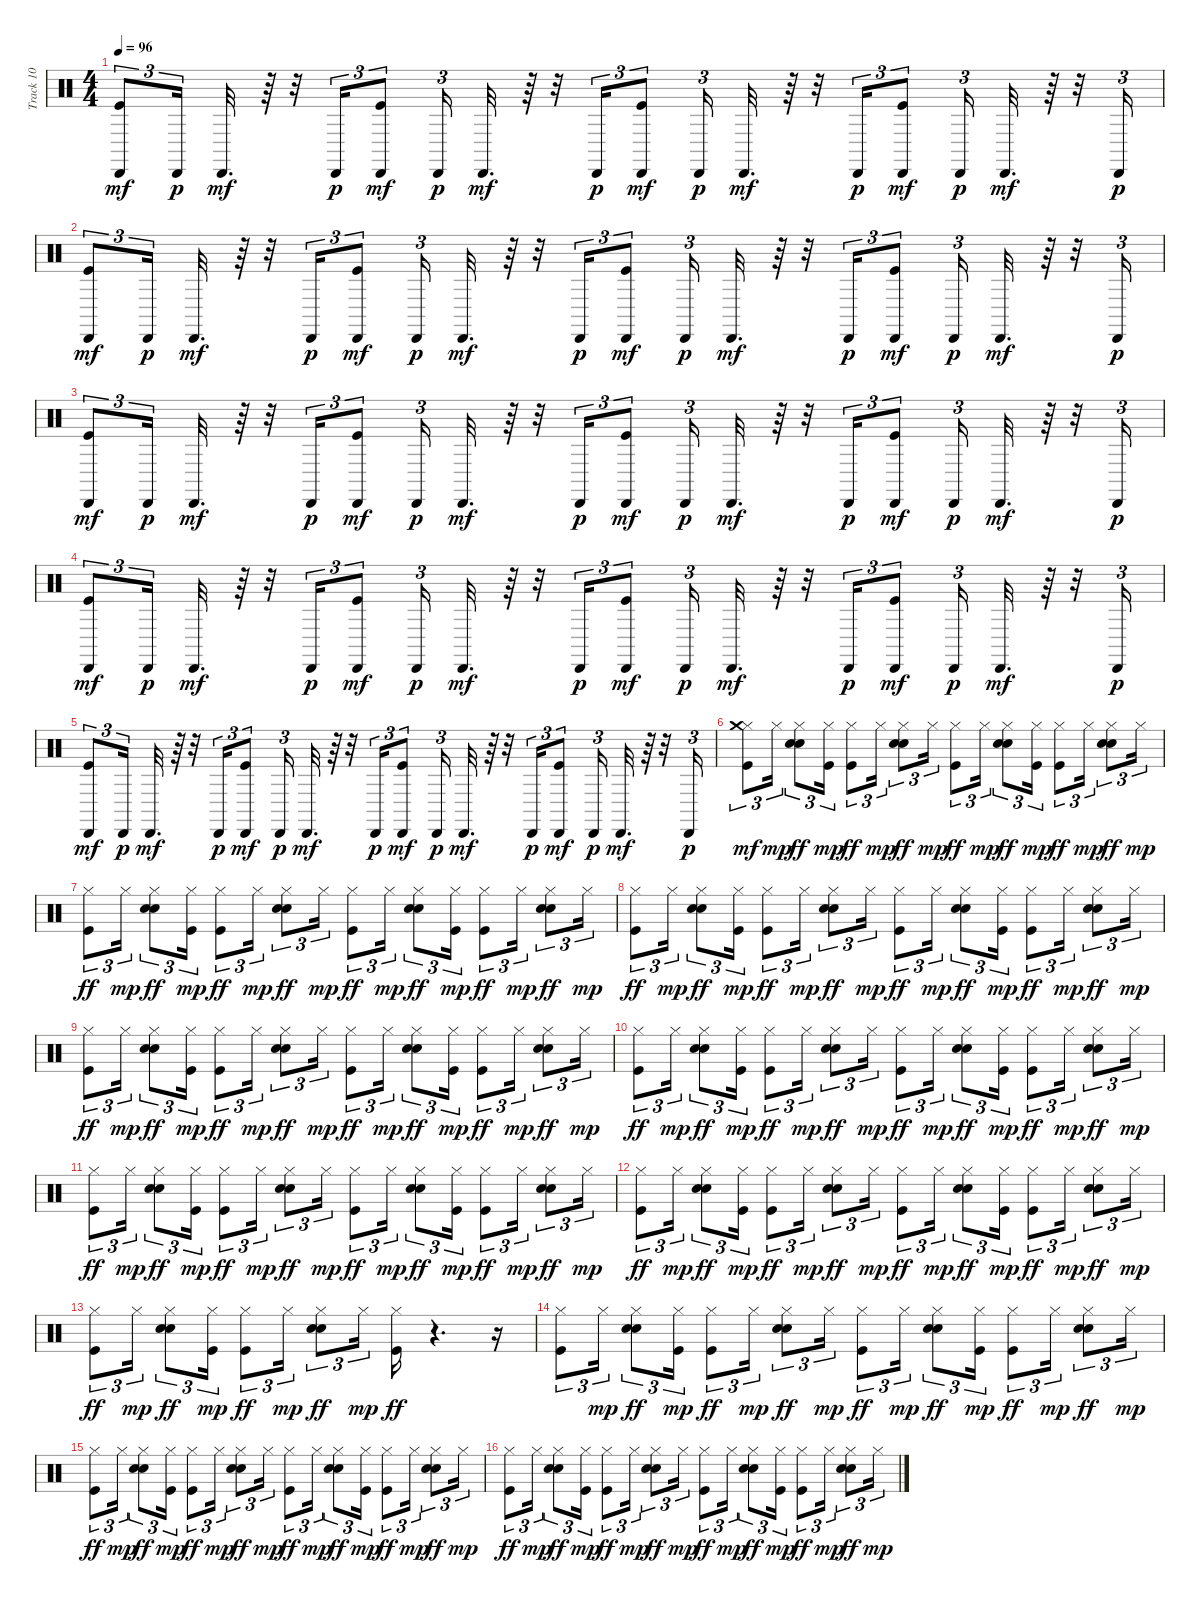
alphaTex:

\track ("Track 10" "Track 10") {instrument percussion}
\staff {score}
\articulation defaults
\ts (4 4)
\tempo 96
\clef neutral
\ks c
("Kick (hit)" "Cabasa (hit)").8{tu (3 2) dy mf} "Cabasa (hit)".16{tu (3 2) dy p} "Cabasa (hit)".32{d dy mf} r.64 r.32 "Cabasa (hit)".16{tu (3 2) dy p} ("Kick (hit)" "Cabasa (hit)").8{tu (3 2) dy mf} "Cabasa (hit)".16{tu (3 2) dy p} "Cabasa (hit)".32{d dy mf} r.64 r.32 "Cabasa (hit)".16{tu (3 2) dy p} ("Kick (hit)" "Cabasa (hit)").8{tu (3 2) dy mf} "Cabasa (hit)".16{tu (3 2) dy p} "Cabasa (hit)".32{d dy mf} r.64 r.32 "Cabasa (hit)".16{tu (3 2) dy p} ("Kick (hit)" "Cabasa (hit)").8{tu (3 2) dy mf} "Cabasa (hit)".16{tu (3 2) dy p} "Cabasa (hit)".32{d dy mf} r.64 r.32 "Cabasa (hit)".16{tu (3 2) dy p} |
("Kick (hit)" "Cabasa (hit)").8{tu (3 2) dy mf} "Cabasa (hit)".16{tu (3 2) dy p} "Cabasa (hit)".32{d dy mf} r.64 r.32 "Cabasa (hit)".16{tu (3 2) dy p} ("Kick (hit)" "Cabasa (hit)").8{tu (3 2) dy mf} "Cabasa (hit)".16{tu (3 2) dy p} "Cabasa (hit)".32{d dy mf} r.64 r.32 "Cabasa (hit)".16{tu (3 2) dy p} ("Kick (hit)" "Cabasa (hit)").8{tu (3 2) dy mf} "Cabasa (hit)".16{tu (3 2) dy p} "Cabasa (hit)".32{d dy mf} r.64 r.32 "Cabasa (hit)".16{tu (3 2) dy p} ("Kick (hit)" "Cabasa (hit)").8{tu (3 2) dy mf} "Cabasa (hit)".16{tu (3 2) dy p} "Cabasa (hit)".32{d dy mf} r.64 r.32 "Cabasa (hit)".16{tu (3 2) dy p} |
("Kick (hit)" "Cabasa (hit)").8{tu (3 2) dy mf} "Cabasa (hit)".16{tu (3 2) dy p} "Cabasa (hit)".32{d dy mf} r.64 r.32 "Cabasa (hit)".16{tu (3 2) dy p} ("Kick (hit)" "Cabasa (hit)").8{tu (3 2) dy mf} "Cabasa (hit)".16{tu (3 2) dy p} "Cabasa (hit)".32{d dy mf} r.64 r.32 "Cabasa (hit)".16{tu (3 2) dy p} ("Kick (hit)" "Cabasa (hit)").8{tu (3 2) dy mf} "Cabasa (hit)".16{tu (3 2) dy p} "Cabasa (hit)".32{d dy mf} r.64 r.32 "Cabasa (hit)".16{tu (3 2) dy p} ("Kick (hit)" "Cabasa (hit)").8{tu (3 2) dy mf} "Cabasa (hit)".16{tu (3 2) dy p} "Cabasa (hit)".32{d dy mf} r.64 r.32 "Cabasa (hit)".16{tu (3 2) dy p} |
("Kick (hit)" "Cabasa (hit)").8{tu (3 2) dy mf} "Cabasa (hit)".16{tu (3 2) dy p} "Cabasa (hit)".32{d dy mf} r.64 r.32 "Cabasa (hit)".16{tu (3 2) dy p} ("Kick (hit)" "Cabasa (hit)").8{tu (3 2) dy mf} "Cabasa (hit)".16{tu (3 2) dy p} "Cabasa (hit)".32{d dy mf} r.64 r.32 "Cabasa (hit)".16{tu (3 2) dy p} ("Kick (hit)" "Cabasa (hit)").8{tu (3 2) dy mf} "Cabasa (hit)".16{tu (3 2) dy p} "Cabasa (hit)".32{d dy mf} r.64 r.32 "Cabasa (hit)".16{tu (3 2) dy p} ("Kick (hit)" "Cabasa (hit)").8{tu (3 2) dy mf} "Cabasa (hit)".16{tu (3 2) dy p} "Cabasa (hit)".32{d dy mf} r.64 r.32 "Cabasa (hit)".16{tu (3 2) dy p} |
("Kick (hit)" "Cabasa (hit)").8{tu (3 2) dy mf} "Cabasa (hit)".16{tu (3 2) dy p} "Cabasa (hit)".32{d dy mf} r.64 r.32 "Cabasa (hit)".16{tu (3 2) dy p} ("Kick (hit)" "Cabasa (hit)").8{tu (3 2) dy mf} "Cabasa (hit)".16{tu (3 2) dy p} "Cabasa (hit)".32{d dy mf} r.64 r.32 "Cabasa (hit)".16{tu (3 2) dy p} ("Kick (hit)" "Cabasa (hit)").8{tu (3 2) dy mf} "Cabasa (hit)".16{tu (3 2) dy p} "Cabasa (hit)".32{d dy mf} r.64 r.32 "Cabasa (hit)".16{tu (3 2) dy p} ("Kick (hit)" "Cabasa (hit)").8{tu (3 2) dy mf} "Cabasa (hit)".16{tu (3 2) dy p} "Cabasa (hit)".32{d dy mf} r.64 r.32 "Cabasa (hit)".16{tu (3 2) dy p} |
("Kick (hit)" "Hi-Hat (closed)" "Crash medium (hit)").8{tu (3 2) dy mf} "Hi-Hat (closed)".16{tu (3 2) dy mp} ("Snare (hit) 2" "Hand Clap (hit)" "Hi-Hat (closed)").8{tu (3 2) dy ff} ("Kick (hit)" "Hi-Hat (closed)").16{tu (3 2) dy mp} ("Kick (hit)" "Hi-Hat (closed)").8{tu (3 2) dy ff} "Hi-Hat (closed)".16{tu (3 2) dy mp} ("Snare (hit) 2" "Hand Clap (hit)" "Hi-Hat (closed)").8{tu (3 2) dy ff} "Hi-Hat (closed)".16{tu (3 2) dy mp} ("Kick (hit)" "Hi-Hat (closed)").8{tu (3 2) dy ff} "Hi-Hat (closed)".16{tu (3 2) dy mp} ("Snare (hit) 2" "Hand Clap (hit)" "Hi-Hat (closed)").8{tu (3 2) dy ff} ("Kick (hit)" "Hi-Hat (closed)").16{tu (3 2) dy mp} ("Kick (hit)" "Hi-Hat (closed)").8{tu (3 2) dy ff} "Hi-Hat (closed)".16{tu (3 2) dy mp} ("Snare (hit) 2" "Hand Clap (hit)" "Hi-Hat (closed)").8{tu (3 2) dy ff} "Hi-Hat (closed)".16{tu (3 2) dy mp} |
("Kick (hit)" "Hi-Hat (closed)").8{tu (3 2) dy ff} "Hi-Hat (closed)".16{tu (3 2) dy mp} ("Snare (hit) 2" "Hand Clap (hit)" "Hi-Hat (closed)").8{tu (3 2) dy ff} ("Kick (hit)" "Hi-Hat (closed)").16{tu (3 2) dy mp} ("Kick (hit)" "Hi-Hat (closed)").8{tu (3 2) dy ff} "Hi-Hat (closed)".16{tu (3 2) dy mp} ("Snare (hit) 2" "Hand Clap (hit)" "Hi-Hat (closed)").8{tu (3 2) dy ff} "Hi-Hat (closed)".16{tu (3 2) dy mp} ("Kick (hit)" "Hi-Hat (closed)").8{tu (3 2) dy ff} "Hi-Hat (closed)".16{tu (3 2) dy mp} ("Snare (hit) 2" "Hand Clap (hit)" "Hi-Hat (closed)").8{tu (3 2) dy ff} ("Kick (hit)" "Hi-Hat (closed)").16{tu (3 2) dy mp} ("Kick (hit)" "Hi-Hat (closed)").8{tu (3 2) dy ff} "Hi-Hat (closed)".16{tu (3 2) dy mp} ("Snare (hit) 2" "Hand Clap (hit)" "Hi-Hat (closed)").8{tu (3 2) dy ff} "Hi-Hat (closed)".16{tu (3 2) dy mp} |
("Kick (hit)" "Hi-Hat (closed)").8{tu (3 2) dy ff} "Hi-Hat (closed)".16{tu (3 2) dy mp} ("Snare (hit) 2" "Hand Clap (hit)" "Hi-Hat (closed)").8{tu (3 2) dy ff} ("Kick (hit)" "Hi-Hat (closed)").16{tu (3 2) dy mp} ("Kick (hit)" "Hi-Hat (closed)").8{tu (3 2) dy ff} "Hi-Hat (closed)".16{tu (3 2) dy mp} ("Snare (hit) 2" "Hand Clap (hit)" "Hi-Hat (closed)").8{tu (3 2) dy ff} "Hi-Hat (closed)".16{tu (3 2) dy mp} ("Kick (hit)" "Hi-Hat (closed)").8{tu (3 2) dy ff} "Hi-Hat (closed)".16{tu (3 2) dy mp} ("Snare (hit) 2" "Hand Clap (hit)" "Hi-Hat (closed)").8{tu (3 2) dy ff} ("Kick (hit)" "Hi-Hat (closed)").16{tu (3 2) dy mp} ("Kick (hit)" "Hi-Hat (closed)").8{tu (3 2) dy ff} "Hi-Hat (closed)".16{tu (3 2) dy mp} ("Snare (hit) 2" "Hand Clap (hit)" "Hi-Hat (closed)").8{tu (3 2) dy ff} "Hi-Hat (closed)".16{tu (3 2) dy mp} |
("Kick (hit)" "Hi-Hat (closed)").8{tu (3 2) dy ff} "Hi-Hat (closed)".16{tu (3 2) dy mp} ("Snare (hit) 2" "Hand Clap (hit)" "Hi-Hat (closed)").8{tu (3 2) dy ff} ("Kick (hit)" "Hi-Hat (closed)").16{tu (3 2) dy mp} ("Kick (hit)" "Hi-Hat (closed)").8{tu (3 2) dy ff} "Hi-Hat (closed)".16{tu (3 2) dy mp} ("Snare (hit) 2" "Hand Clap (hit)" "Hi-Hat (closed)").8{tu (3 2) dy ff} "Hi-Hat (closed)".16{tu (3 2) dy mp} ("Kick (hit)" "Hi-Hat (closed)").8{tu (3 2) dy ff} "Hi-Hat (closed)".16{tu (3 2) dy mp} ("Snare (hit) 2" "Hand Clap (hit)" "Hi-Hat (closed)").8{tu (3 2) dy ff} ("Kick (hit)" "Hi-Hat (closed)").16{tu (3 2) dy mp} ("Kick (hit)" "Hi-Hat (closed)").8{tu (3 2) dy ff} "Hi-Hat (closed)".16{tu (3 2) dy mp} ("Snare (hit) 2" "Hand Clap (hit)" "Hi-Hat (closed)").8{tu (3 2) dy ff} "Hi-Hat (closed)".16{tu (3 2) dy mp} |
("Kick (hit)" "Hi-Hat (closed)").8{tu (3 2) dy ff} "Hi-Hat (closed)".16{tu (3 2) dy mp} ("Snare (hit) 2" "Hand Clap (hit)" "Hi-Hat (closed)").8{tu (3 2) dy ff} ("Kick (hit)" "Hi-Hat (closed)").16{tu (3 2) dy mp} ("Kick (hit)" "Hi-Hat (closed)").8{tu (3 2) dy ff} "Hi-Hat (closed)".16{tu (3 2) dy mp} ("Snare (hit) 2" "Hand Clap (hit)" "Hi-Hat (closed)").8{tu (3 2) dy ff} "Hi-Hat (closed)".16{tu (3 2) dy mp} ("Kick (hit)" "Hi-Hat (closed)").8{tu (3 2) dy ff} "Hi-Hat (closed)".16{tu (3 2) dy mp} ("Snare (hit) 2" "Hand Clap (hit)" "Hi-Hat (closed)").8{tu (3 2) dy ff} ("Kick (hit)" "Hi-Hat (closed)").16{tu (3 2) dy mp} ("Kick (hit)" "Hi-Hat (closed)").8{tu (3 2) dy ff} "Hi-Hat (closed)".16{tu (3 2) dy mp} ("Snare (hit) 2" "Hand Clap (hit)" "Hi-Hat (closed)").8{tu (3 2) dy ff} "Hi-Hat (closed)".16{tu (3 2) dy mp} |
("Kick (hit)" "Hi-Hat (closed)").8{tu (3 2) dy ff} "Hi-Hat (closed)".16{tu (3 2) dy mp} ("Snare (hit) 2" "Hand Clap (hit)" "Hi-Hat (closed)").8{tu (3 2) dy ff} ("Kick (hit)" "Hi-Hat (closed)").16{tu (3 2) dy mp} ("Kick (hit)" "Hi-Hat (closed)").8{tu (3 2) dy ff} "Hi-Hat (closed)".16{tu (3 2) dy mp} ("Snare (hit) 2" "Hand Clap (hit)" "Hi-Hat (closed)").8{tu (3 2) dy ff} "Hi-Hat (closed)".16{tu (3 2) dy mp} ("Kick (hit)" "Hi-Hat (closed)").8{tu (3 2) dy ff} "Hi-Hat (closed)".16{tu (3 2) dy mp} ("Snare (hit) 2" "Hand Clap (hit)" "Hi-Hat (closed)").8{tu (3 2) dy ff} ("Kick (hit)" "Hi-Hat (closed)").16{tu (3 2) dy mp} ("Kick (hit)" "Hi-Hat (closed)").8{tu (3 2) dy ff} "Hi-Hat (closed)".16{tu (3 2) dy mp} ("Snare (hit) 2" "Hand Clap (hit)" "Hi-Hat (closed)").8{tu (3 2) dy ff} "Hi-Hat (closed)".16{tu (3 2) dy mp} |
("Kick (hit)" "Hi-Hat (closed)").8{tu (3 2) dy ff} "Hi-Hat (closed)".16{tu (3 2) dy mp} ("Snare (hit) 2" "Hand Clap (hit)" "Hi-Hat (closed)").8{tu (3 2) dy ff} ("Kick (hit)" "Hi-Hat (closed)").16{tu (3 2) dy mp} ("Kick (hit)" "Hi-Hat (closed)").8{tu (3 2) dy ff} "Hi-Hat (closed)".16{tu (3 2) dy mp} ("Snare (hit) 2" "Hand Clap (hit)" "Hi-Hat (closed)").8{tu (3 2) dy ff} "Hi-Hat (closed)".16{tu (3 2) dy mp} ("Kick (hit)" "Hi-Hat (closed)").8{tu (3 2) dy ff} "Hi-Hat (closed)".16{tu (3 2) dy mp} ("Snare (hit) 2" "Hand Clap (hit)" "Hi-Hat (closed)").8{tu (3 2) dy ff} ("Kick (hit)" "Hi-Hat (closed)").16{tu (3 2) dy mp} ("Kick (hit)" "Hi-Hat (closed)").8{tu (3 2) dy ff} "Hi-Hat (closed)".16{tu (3 2) dy mp} ("Snare (hit) 2" "Hand Clap (hit)" "Hi-Hat (closed)").8{tu (3 2) dy ff} "Hi-Hat (closed)".16{tu (3 2) dy mp} |
("Kick (hit)" "Hi-Hat (closed)").8{tu (3 2) dy ff} "Hi-Hat (closed)".16{tu (3 2) dy mp} ("Snare (hit) 2" "Hand Clap (hit)" "Hi-Hat (closed)").8{tu (3 2) dy ff} ("Kick (hit)" "Hi-Hat (closed)").16{tu (3 2) dy mp} ("Kick (hit)" "Hi-Hat (closed)").8{tu (3 2) dy ff} "Hi-Hat (closed)".16{tu (3 2) dy mp} ("Snare (hit) 2" "Hand Clap (hit)" "Hi-Hat (closed)").8{tu (3 2) dy ff} "Hi-Hat (closed)".16{tu (3 2) dy mp} ("Kick (hit)" "Hi-Hat (closed)").16{dy ff} r.4{d} r.16 |
("Kick (hit)" "Hi-Hat (closed)").8{tu (3 2)} "Hi-Hat (closed)".16{tu (3 2) dy mp} ("Snare (hit) 2" "Hand Clap (hit)" "Hi-Hat (closed)").8{tu (3 2) dy ff} ("Kick (hit)" "Hi-Hat (closed)").16{tu (3 2) dy mp} ("Kick (hit)" "Hi-Hat (closed)").8{tu (3 2) dy ff} "Hi-Hat (closed)".16{tu (3 2) dy mp} ("Snare (hit) 2" "Hand Clap (hit)" "Hi-Hat (closed)").8{tu (3 2) dy ff} "Hi-Hat (closed)".16{tu (3 2) dy mp} ("Kick (hit)" "Hi-Hat (closed)").8{tu (3 2) dy ff} "Hi-Hat (closed)".16{tu (3 2) dy mp} ("Snare (hit) 2" "Hand Clap (hit)" "Hi-Hat (closed)").8{tu (3 2) dy ff} ("Kick (hit)" "Hi-Hat (closed)").16{tu (3 2) dy mp} ("Kick (hit)" "Hi-Hat (closed)").8{tu (3 2) dy ff} "Hi-Hat (closed)".16{tu (3 2) dy mp} ("Snare (hit) 2" "Hand Clap (hit)" "Hi-Hat (closed)").8{tu (3 2) dy ff} "Hi-Hat (closed)".16{tu (3 2) dy mp} |
("Kick (hit)" "Hi-Hat (closed)").8{tu (3 2) dy ff} "Hi-Hat (closed)".16{tu (3 2) dy mp} ("Snare (hit) 2" "Hand Clap (hit)" "Hi-Hat (closed)").8{tu (3 2) dy ff} ("Kick (hit)" "Hi-Hat (closed)").16{tu (3 2) dy mp} ("Kick (hit)" "Hi-Hat (closed)").8{tu (3 2) dy ff} "Hi-Hat (closed)".16{tu (3 2) dy mp} ("Snare (hit) 2" "Hand Clap (hit)" "Hi-Hat (closed)").8{tu (3 2) dy ff} "Hi-Hat (closed)".16{tu (3 2) dy mp} ("Kick (hit)" "Hi-Hat (closed)").8{tu (3 2) dy ff} "Hi-Hat (closed)".16{tu (3 2) dy mp} ("Snare (hit) 2" "Hand Clap (hit)" "Hi-Hat (closed)").8{tu (3 2) dy ff} ("Kick (hit)" "Hi-Hat (closed)").16{tu (3 2) dy mp} ("Kick (hit)" "Hi-Hat (closed)").8{tu (3 2) dy ff} "Hi-Hat (closed)".16{tu (3 2) dy mp} ("Snare (hit) 2" "Hand Clap (hit)" "Hi-Hat (closed)").8{tu (3 2) dy ff} "Hi-Hat (closed)".16{tu (3 2) dy mp} |
("Kick (hit)" "Hi-Hat (closed)").8{tu (3 2) dy ff} "Hi-Hat (closed)".16{tu (3 2) dy mp} ("Snare (hit) 2" "Hand Clap (hit)" "Hi-Hat (closed)").8{tu (3 2) dy ff} ("Kick (hit)" "Hi-Hat (closed)").16{tu (3 2) dy mp} ("Kick (hit)" "Hi-Hat (closed)").8{tu (3 2) dy ff} "Hi-Hat (closed)".16{tu (3 2) dy mp} ("Snare (hit) 2" "Hand Clap (hit)" "Hi-Hat (closed)").8{tu (3 2) dy ff} "Hi-Hat (closed)".16{tu (3 2) dy mp} ("Kick (hit)" "Hi-Hat (closed)").8{tu (3 2) dy ff} "Hi-Hat (closed)".16{tu (3 2) dy mp} ("Snare (hit) 2" "Hand Clap (hit)" "Hi-Hat (closed)").8{tu (3 2) dy ff} ("Kick (hit)" "Hi-Hat (closed)").16{tu (3 2) dy mp} ("Kick (hit)" "Hi-Hat (closed)").8{tu (3 2) dy ff} "Hi-Hat (closed)".16{tu (3 2) dy mp} ("Snare (hit) 2" "Hand Clap (hit)" "Hi-Hat (closed)").8{tu (3 2) dy ff} "Hi-Hat (closed)".16{tu (3 2) dy mp}
